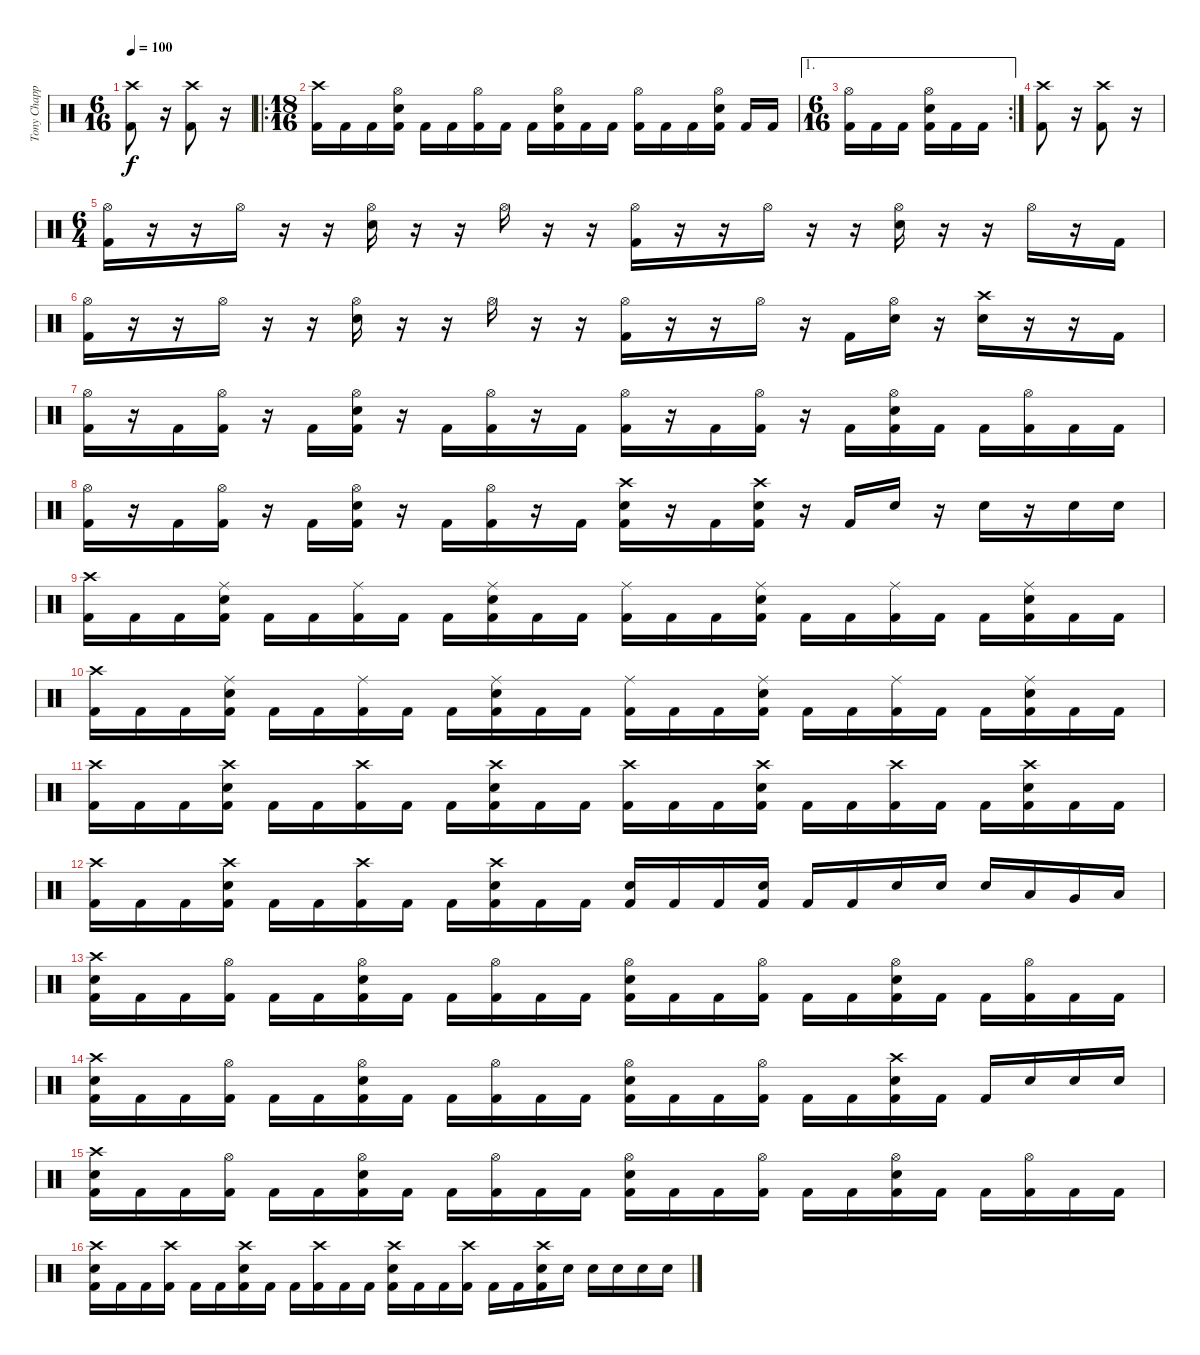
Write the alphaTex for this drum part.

\track ("Tony Chappelle: Drums" "Tony Chapp") {instrument percussion}
\staff {score}
\articulation defaults
\ts (6 16)
\tempo 100
\clef neutral
\ks c
("Crash high (hit)" "Kick (hit) 2").8{dy f} r.16 ("Crash high (hit)" "Kick (hit) 2").8 r.16 |
\ro
\ts (18 16)
("Crash high (hit)" "Kick (hit) 2").16 "Kick (hit) 2".16 "Kick (hit) 2".16 ("Electric Snare (hit)" "Hi-Hat (open)" "Kick (hit) 2").16 "Kick (hit) 2".16 "Kick (hit) 2".16 ("Hi-Hat (open)" "Kick (hit) 2").16 "Kick (hit) 2".16 "Kick (hit) 2".16 ("Electric Snare (hit)" "Hi-Hat (open)" "Kick (hit) 2").16 "Kick (hit) 2".16 "Kick (hit) 2".16 ("Hi-Hat (open)" "Kick (hit) 2").16 "Kick (hit) 2".16 "Kick (hit) 2".16 ("Electric Snare (hit)" "Hi-Hat (open)" "Kick (hit) 2").16 "Kick (hit) 2".16 "Kick (hit) 2".16 |
\ae 1
\rc 2
\ts (6 16)
("Hi-Hat (open)" "Kick (hit) 2").16 "Kick (hit) 2".16 "Kick (hit) 2".16 ("Electric Snare (hit)" "Hi-Hat (open)" "Kick (hit) 2").16 "Kick (hit) 2".16 "Kick (hit) 2".16 |
("Crash high (hit)" "Kick (hit) 2").8 r.16 ("Crash high (hit)" "Kick (hit) 2").8 r.16 |
\ts (6 4)
("Hi-Hat (open)" "Kick (hit) 2").16 r.16 r.16 "Hi-Hat (open)".16 r.16 r.16 ("Hi-Hat (open)" "Electric Snare (hit)").16 r.16 r.16 "Hi-Hat (open)".16 r.16 r.16 ("Hi-Hat (open)" "Kick (hit) 2").16 r.16 r.16 "Hi-Hat (open)".16 r.16 r.16 ("Hi-Hat (open)" "Electric Snare (hit)").16 r.16 r.16 "Hi-Hat (open)".16 r.16 "Kick (hit) 2".16 |
("Hi-Hat (open)" "Kick (hit) 2").16 r.16 r.16 "Hi-Hat (open)".16 r.16 r.16 ("Hi-Hat (open)" "Electric Snare (hit)").16 r.16 r.16 "Hi-Hat (open)".16 r.16 r.16 ("Hi-Hat (open)" "Kick (hit) 2").16 r.16 r.16 "Hi-Hat (open)".16 r.16 "Kick (hit) 2".16 ("Hi-Hat (open)" "Electric Snare (hit)").16 r.16 ("Crash high (hit)" "Electric Snare (hit)").16 r.16 r.16 "Kick (hit) 2".16 |
("Hi-Hat (open)" "Kick (hit) 2").16 r.16 "Kick (hit) 2".16 ("Hi-Hat (open)" "Kick (hit) 2").16 r.16 "Kick (hit) 2".16 ("Kick (hit) 2" "Hi-Hat (open)" "Electric Snare (hit)").16 r.16 "Kick (hit) 2".16 ("Hi-Hat (open)" "Kick (hit) 2").16 r.16 "Kick (hit) 2".16 ("Hi-Hat (open)" "Kick (hit) 2").16 r.16 "Kick (hit) 2".16 ("Hi-Hat (open)" "Kick (hit) 2").16 r.16 "Kick (hit) 2".16 ("Kick (hit) 2" "Hi-Hat (open)" "Electric Snare (hit)").16 "Kick (hit) 2".16 "Kick (hit) 2".16 ("Hi-Hat (open)" "Kick (hit) 2").16 "Kick (hit) 2".16 "Kick (hit) 2".16 |
("Hi-Hat (open)" "Kick (hit) 2").16 r.16 "Kick (hit) 2".16 ("Hi-Hat (open)" "Kick (hit) 2").16 r.16 "Kick (hit) 2".16 ("Kick (hit) 2" "Hi-Hat (open)" "Electric Snare (hit)").16 r.16 "Kick (hit) 2".16 ("Hi-Hat (open)" "Kick (hit) 2").16 r.16 "Kick (hit) 2".16 ("Crash high (hit)" "Electric Snare (hit)" "Kick (hit) 2").16 r.16 "Kick (hit) 2".16 ("Crash high (hit)" "Electric Snare (hit)" "Kick (hit) 2").16 r.16 "Kick (hit) 2".16 "Electric Snare (hit)".16 r.16 "Electric Snare (hit)".16 r.16 "Electric Snare (hit)".16 "Electric Snare (hit)".16 |
("Crash high (hit)" "Kick (hit) 2").16 "Kick (hit) 2".16 "Kick (hit) 2".16 ("Ride (middle)" "Electric Snare (hit)" "Kick (hit) 2").16 "Kick (hit) 2".16 "Kick (hit) 2".16 ("Ride (middle)" "Kick (hit) 2").16 "Kick (hit) 2".16 "Kick (hit) 2".16 ("Ride (middle)" "Electric Snare (hit)" "Kick (hit) 2").16 "Kick (hit) 2".16 "Kick (hit) 2".16 ("Ride (middle)" "Kick (hit) 2").16 "Kick (hit) 2".16 "Kick (hit) 2".16 ("Ride (middle)" "Electric Snare (hit)" "Kick (hit) 2").16 "Kick (hit) 2".16 "Kick (hit) 2".16 ("Ride (middle)" "Kick (hit) 2").16 "Kick (hit) 2".16 "Kick (hit) 2".16 ("Ride (middle)" "Electric Snare (hit)" "Kick (hit) 2").16 "Kick (hit) 2".16 "Kick (hit) 2".16 |
("Crash high (hit)" "Kick (hit) 2").16 "Kick (hit) 2".16 "Kick (hit) 2".16 ("Ride (middle)" "Electric Snare (hit)" "Kick (hit) 2").16 "Kick (hit) 2".16 "Kick (hit) 2".16 ("Ride (middle)" "Kick (hit) 2").16 "Kick (hit) 2".16 "Kick (hit) 2".16 ("Ride (middle)" "Electric Snare (hit)" "Kick (hit) 2").16 "Kick (hit) 2".16 "Kick (hit) 2".16 ("Ride (middle)" "Kick (hit) 2").16 "Kick (hit) 2".16 "Kick (hit) 2".16 ("Ride (middle)" "Electric Snare (hit)" "Kick (hit) 2").16 "Kick (hit) 2".16 "Kick (hit) 2".16 ("Ride (middle)" "Kick (hit) 2").16 "Kick (hit) 2".16 "Kick (hit) 2".16 ("Ride (middle)" "Electric Snare (hit)" "Kick (hit) 2").16 "Kick (hit) 2".16 "Kick (hit) 2".16 |
("Crash high (hit)" "Kick (hit) 2").16 "Kick (hit) 2".16 "Kick (hit) 2".16 ("Crash high (hit)" "Electric Snare (hit)" "Kick (hit) 2").16 "Kick (hit) 2".16 "Kick (hit) 2".16 ("Crash high (hit)" "Kick (hit) 2").16 "Kick (hit) 2".16 "Kick (hit) 2".16 ("Crash high (hit)" "Electric Snare (hit)" "Kick (hit) 2").16 "Kick (hit) 2".16 "Kick (hit) 2".16 ("Crash high (hit)" "Kick (hit) 2").16 "Kick (hit) 2".16 "Kick (hit) 2".16 ("Crash high (hit)" "Electric Snare (hit)" "Kick (hit) 2").16 "Kick (hit) 2".16 "Kick (hit) 2".16 ("Crash high (hit)" "Kick (hit) 2").16 "Kick (hit) 2".16 "Kick (hit) 2".16 ("Crash high (hit)" "Electric Snare (hit)" "Kick (hit) 2").16 "Kick (hit) 2".16 "Kick (hit) 2".16 |
("Crash high (hit)" "Kick (hit) 2").16 "Kick (hit) 2".16 "Kick (hit) 2".16 ("Crash high (hit)" "Electric Snare (hit)" "Kick (hit) 2").16 "Kick (hit) 2".16 "Kick (hit) 2".16 ("Crash high (hit)" "Kick (hit) 2").16 "Kick (hit) 2".16 "Kick (hit) 2".16 ("Crash high (hit)" "Electric Snare (hit)" "Kick (hit) 2").16 "Kick (hit) 2".16 "Kick (hit) 2".16 ("Electric Snare (hit)" "Kick (hit) 2").16 "Kick (hit) 2".16 "Kick (hit) 2".16 ("Electric Snare (hit)" "Kick (hit) 2").16 "Kick (hit) 2".16 "Kick (hit) 2".16 "Electric Snare (hit)".16 "Electric Snare (hit)".16 "Electric Snare (hit)".16 "Low Tom (hit)".16 "Very Low Tom (hit)".16 "Low Floor Tom (hit)".16 |
("Crash high (hit)" "Electric Snare (hit)" "Kick (hit) 2").16 "Kick (hit) 2".16 "Kick (hit) 2".16 ("Hi-Hat (open)" "Kick (hit) 2").16 "Kick (hit) 2".16 "Kick (hit) 2".16 ("Hi-Hat (open)" "Electric Snare (hit)" "Kick (hit) 2").16 "Kick (hit) 2".16 "Kick (hit) 2".16 ("Hi-Hat (open)" "Kick (hit) 2").16 "Kick (hit) 2".16 "Kick (hit) 2".16 ("Hi-Hat (open)" "Electric Snare (hit)" "Kick (hit) 2").16 "Kick (hit) 2".16 "Kick (hit) 2".16 ("Hi-Hat (open)" "Kick (hit) 2").16 "Kick (hit) 2".16 "Kick (hit) 2".16 ("Hi-Hat (open)" "Electric Snare (hit)" "Kick (hit) 2").16 "Kick (hit) 2".16 "Kick (hit) 2".16 ("Hi-Hat (open)" "Kick (hit) 2").16 "Kick (hit) 2".16 "Kick (hit) 2".16 |
("Crash high (hit)" "Electric Snare (hit)" "Kick (hit) 2").16 "Kick (hit) 2".16 "Kick (hit) 2".16 ("Hi-Hat (open)" "Kick (hit) 2").16 "Kick (hit) 2".16 "Kick (hit) 2".16 ("Hi-Hat (open)" "Electric Snare (hit)" "Kick (hit) 2").16 "Kick (hit) 2".16 "Kick (hit) 2".16 ("Hi-Hat (open)" "Kick (hit) 2").16 "Kick (hit) 2".16 "Kick (hit) 2".16 ("Hi-Hat (open)" "Electric Snare (hit)" "Kick (hit) 2").16 "Kick (hit) 2".16 "Kick (hit) 2".16 ("Hi-Hat (open)" "Kick (hit) 2").16 "Kick (hit) 2".16 "Kick (hit) 2".16 ("Crash high (hit)" "Electric Snare (hit)" "Kick (hit) 2").16 "Kick (hit) 2".16 "Kick (hit) 2".16 "Electric Snare (hit)".16 "Electric Snare (hit)".16 "Electric Snare (hit)".16 |
("Crash high (hit)" "Electric Snare (hit)" "Kick (hit) 2").16 "Kick (hit) 2".16 "Kick (hit) 2".16 ("Hi-Hat (open)" "Kick (hit) 2").16 "Kick (hit) 2".16 "Kick (hit) 2".16 ("Hi-Hat (open)" "Electric Snare (hit)" "Kick (hit) 2").16 "Kick (hit) 2".16 "Kick (hit) 2".16 ("Hi-Hat (open)" "Kick (hit) 2").16 "Kick (hit) 2".16 "Kick (hit) 2".16 ("Hi-Hat (open)" "Electric Snare (hit)" "Kick (hit) 2").16 "Kick (hit) 2".16 "Kick (hit) 2".16 ("Hi-Hat (open)" "Kick (hit) 2").16 "Kick (hit) 2".16 "Kick (hit) 2".16 ("Hi-Hat (open)" "Electric Snare (hit)" "Kick (hit) 2").16 "Kick (hit) 2".16 "Kick (hit) 2".16 ("Hi-Hat (open)" "Kick (hit) 2").16 "Kick (hit) 2".16 "Kick (hit) 2".16 |
("Crash high (hit)" "Electric Snare (hit)" "Kick (hit) 2").16 "Kick (hit) 2".16 "Kick (hit) 2".16 ("Crash high (hit)" "Kick (hit) 2").16 "Kick (hit) 2".16 "Kick (hit) 2".16 ("Crash high (hit)" "Electric Snare (hit)" "Kick (hit) 2").16 "Kick (hit) 2".16 "Kick (hit) 2".16 ("Crash high (hit)" "Kick (hit) 2").16 "Kick (hit) 2".16 "Kick (hit) 2".16 ("Crash high (hit)" "Electric Snare (hit)" "Kick (hit) 2").16 "Kick (hit) 2".16 "Kick (hit) 2".16 ("Crash high (hit)" "Kick (hit) 2").16 "Kick (hit) 2".16 "Kick (hit) 2".16 ("Crash high (hit)" "Electric Snare (hit)" "Kick (hit) 2").16 "Electric Snare (hit)".16 "Electric Snare (hit)".16 "Electric Snare (hit)".16 "Electric Snare (hit)".16 "Electric Snare (hit)".16
